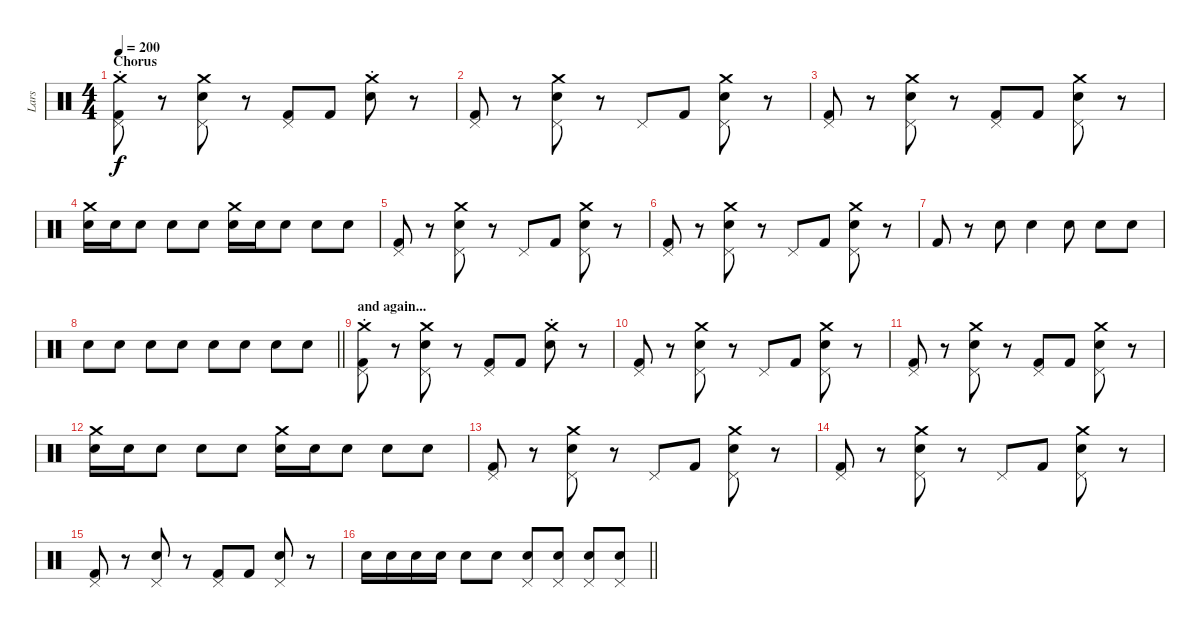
\track ("Lars" "Lars") {instrument percussion}
\staff {score}
\articulation defaults
\ts (4 4)
\section ("" "Chorus")
\tempo 200
\clef neutral
\ks c
("Crash medium (hit)"{st} "Pedal Hi-Hat (hit)" "Kick (hit) 2").8{dy f} r.8 ("Crash medium (hit)" "Pedal Hi-Hat (hit)" "Snare (hit) 2").8 r.8 ("Pedal Hi-Hat (hit)" "Kick (hit) 2").8 "Kick (hit) 2".8 ("Crash medium (hit)"{st} "Snare (hit) 2").8 r.8 |
("Pedal Hi-Hat (hit)" "Kick (hit) 2").8 r.8 ("Crash medium (hit)" "Pedal Hi-Hat (hit)" "Snare (hit) 2").8 r.8 "Pedal Hi-Hat (hit)".8 "Kick (hit) 2".8 ("Crash medium (hit)" "Pedal Hi-Hat (hit)" "Snare (hit) 2").8 r.8 |
("Pedal Hi-Hat (hit)" "Kick (hit) 2").8 r.8 ("Crash medium (hit)" "Pedal Hi-Hat (hit)" "Snare (hit) 2").8 r.8 ("Pedal Hi-Hat (hit)" "Kick (hit) 2").8 "Kick (hit) 2".8 ("Crash medium (hit)" "Pedal Hi-Hat (hit)" "Snare (hit) 2").8 r.8 |
("Crash medium (hit)" "Snare (hit) 2").16 "Snare (hit) 2".16 "Snare (hit) 2".8 "Snare (hit) 2".8 "Snare (hit) 2".8 ("Crash medium (hit)" "Snare (hit) 2").16 "Snare (hit) 2".16 "Snare (hit) 2".8 "Snare (hit) 2".8 "Snare (hit) 2".8 |
("Pedal Hi-Hat (hit)" "Kick (hit) 2").8 r.8 ("Crash medium (hit)" "Pedal Hi-Hat (hit)" "Snare (hit) 2").8 r.8 "Pedal Hi-Hat (hit)".8 "Kick (hit) 2".8 ("Crash medium (hit)" "Pedal Hi-Hat (hit)" "Snare (hit) 2").8 r.8 |
("Pedal Hi-Hat (hit)" "Kick (hit) 2").8 r.8 ("Crash medium (hit)" "Pedal Hi-Hat (hit)" "Snare (hit) 2").8 r.8 "Pedal Hi-Hat (hit)".8 "Kick (hit) 2".8 ("Crash medium (hit)" "Pedal Hi-Hat (hit)" "Snare (hit) 2").8 r.8 |
"Kick (hit) 2".8 r.8 "Snare (hit) 2".8 "Snare (hit) 2".4 "Snare (hit) 2".8 "Snare (hit) 2".8 "Snare (hit) 2".8 |
\barLineRight lightlight "Snare (hit) 2".8 "Snare (hit) 2".8 "Snare (hit) 2".8 "Snare (hit) 2".8 "Snare (hit) 2".8 "Snare (hit) 2".8 "Snare (hit) 2".8 "Snare (hit) 2".8
|
\section ("" "and again...")
("Crash medium (hit)"{st} "Pedal Hi-Hat (hit)" "Kick (hit) 2").8 r.8 ("Crash medium (hit)" "Pedal Hi-Hat (hit)" "Snare (hit) 2").8 r.8 ("Pedal Hi-Hat (hit)" "Kick (hit) 2").8 "Kick (hit) 2".8 ("Crash medium (hit)"{st} "Snare (hit) 2").8 r.8 |
("Pedal Hi-Hat (hit)" "Kick (hit) 2").8 r.8 ("Crash medium (hit)" "Pedal Hi-Hat (hit)" "Snare (hit) 2").8 r.8 "Pedal Hi-Hat (hit)".8 "Kick (hit) 2".8 ("Crash medium (hit)" "Pedal Hi-Hat (hit)" "Snare (hit) 2").8 r.8 |
("Pedal Hi-Hat (hit)" "Kick (hit) 2").8 r.8 ("Crash medium (hit)" "Pedal Hi-Hat (hit)" "Snare (hit) 2").8 r.8 ("Pedal Hi-Hat (hit)" "Kick (hit) 2").8 "Kick (hit) 2".8 ("Crash medium (hit)" "Pedal Hi-Hat (hit)" "Snare (hit) 2").8 r.8 |
("Crash medium (hit)" "Snare (hit) 2").16 "Snare (hit) 2".16 "Snare (hit) 2".8 "Snare (hit) 2".8 "Snare (hit) 2".8 ("Crash medium (hit)" "Snare (hit) 2").16 "Snare (hit) 2".16 "Snare (hit) 2".8 "Snare (hit) 2".8 "Snare (hit) 2".8 |
("Pedal Hi-Hat (hit)" "Kick (hit) 2").8 r.8 ("Crash medium (hit)" "Pedal Hi-Hat (hit)" "Snare (hit) 2").8 r.8 "Pedal Hi-Hat (hit)".8 "Kick (hit) 2".8 ("Crash medium (hit)" "Pedal Hi-Hat (hit)" "Snare (hit) 2").8 r.8 |
("Pedal Hi-Hat (hit)" "Kick (hit) 2").8 r.8 ("Crash medium (hit)" "Pedal Hi-Hat (hit)" "Snare (hit) 2").8 r.8 "Pedal Hi-Hat (hit)".8 "Kick (hit) 2".8 ("Crash medium (hit)" "Pedal Hi-Hat (hit)" "Snare (hit) 2").8 r.8 |
("Pedal Hi-Hat (hit)" "Kick (hit) 2").8 r.8 ("Pedal Hi-Hat (hit)" "Snare (hit) 2").8 r.8 ("Pedal Hi-Hat (hit)" "Kick (hit) 2").8 "Kick (hit) 2".8 ("Pedal Hi-Hat (hit)" "Snare (hit) 2").8 r.8 |
\barLineRight lightlight "Snare (hit) 2".16 "Snare (hit) 2".16 "Snare (hit) 2".16 "Snare (hit) 2".16 "Snare (hit) 2".8 "Snare (hit) 2".8
("Pedal Hi-Hat (hit)" "Snare (hit) 2").8 ("Pedal Hi-Hat (hit)" "Snare (hit) 2").8 ("Pedal Hi-Hat (hit)" "Snare (hit) 2").8 ("Pedal Hi-Hat (hit)" "Snare (hit) 2").8
